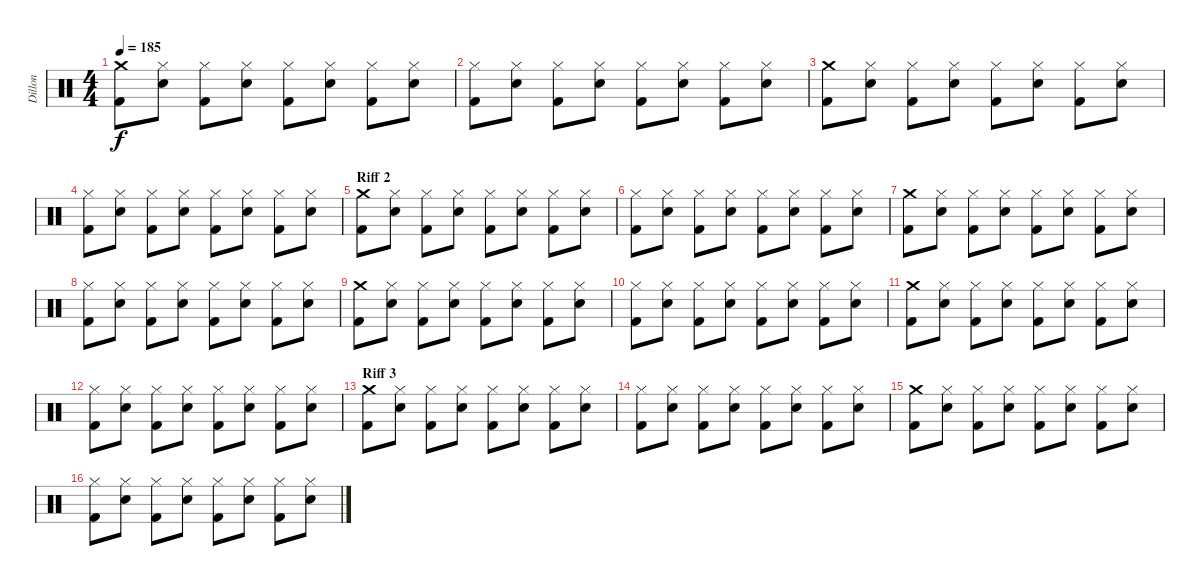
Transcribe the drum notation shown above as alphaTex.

\track ("Dillon" "Dillon") {instrument percussion}
\staff {score}
\articulation defaults
\ts (4 4)
\tempo 185
\clef neutral
\ks c
("Crash medium (hit)" "Kick (hit) 2").8{dy f} ("Hi-Hat (closed)" "Electric Snare (hit)").8 ("Hi-Hat (closed)" "Kick (hit) 2").8 ("Hi-Hat (closed)" "Electric Snare (hit)").8 ("Hi-Hat (closed)" "Kick (hit) 2").8 ("Hi-Hat (closed)" "Electric Snare (hit)").8 ("Hi-Hat (closed)" "Kick (hit) 2").8 ("Hi-Hat (closed)" "Electric Snare (hit)").8 |
("Hi-Hat (closed)" "Kick (hit) 2").8 ("Hi-Hat (closed)" "Electric Snare (hit)").8 ("Hi-Hat (closed)" "Kick (hit) 2").8 ("Hi-Hat (closed)" "Electric Snare (hit)").8 ("Hi-Hat (closed)" "Kick (hit) 2").8 ("Hi-Hat (closed)" "Electric Snare (hit)").8 ("Hi-Hat (closed)" "Kick (hit) 2").8 ("Hi-Hat (closed)" "Electric Snare (hit)").8 |
("Crash medium (hit)" "Kick (hit) 2").8 ("Hi-Hat (closed)" "Electric Snare (hit)").8 ("Hi-Hat (closed)" "Kick (hit) 2").8 ("Hi-Hat (closed)" "Electric Snare (hit)").8 ("Hi-Hat (closed)" "Kick (hit) 2").8 ("Hi-Hat (closed)" "Electric Snare (hit)").8 ("Hi-Hat (closed)" "Kick (hit) 2").8 ("Hi-Hat (closed)" "Electric Snare (hit)").8 |
("Hi-Hat (closed)" "Kick (hit) 2").8 ("Hi-Hat (closed)" "Electric Snare (hit)").8 ("Hi-Hat (closed)" "Kick (hit) 2").8 ("Hi-Hat (closed)" "Electric Snare (hit)").8 ("Hi-Hat (closed)" "Kick (hit) 2").8 ("Hi-Hat (closed)" "Electric Snare (hit)").8 ("Hi-Hat (closed)" "Kick (hit) 2").8 ("Hi-Hat (closed)" "Electric Snare (hit)").8 |
\section ("" "Riff 2")
("Crash medium (hit)" "Kick (hit) 2").8 ("Hi-Hat (closed)" "Electric Snare (hit)").8 ("Hi-Hat (closed)" "Kick (hit) 2").8 ("Hi-Hat (closed)" "Electric Snare (hit)").8 ("Hi-Hat (closed)" "Kick (hit) 2").8 ("Hi-Hat (closed)" "Electric Snare (hit)").8 ("Hi-Hat (closed)" "Kick (hit) 2").8 ("Hi-Hat (closed)" "Electric Snare (hit)").8 |
("Hi-Hat (closed)" "Kick (hit) 2").8 ("Hi-Hat (closed)" "Electric Snare (hit)").8 ("Hi-Hat (closed)" "Kick (hit) 2").8 ("Hi-Hat (closed)" "Electric Snare (hit)").8 ("Hi-Hat (closed)" "Kick (hit) 2").8 ("Hi-Hat (closed)" "Electric Snare (hit)").8 ("Hi-Hat (closed)" "Kick (hit) 2").8 ("Hi-Hat (closed)" "Electric Snare (hit)").8 |
("Crash medium (hit)" "Kick (hit) 2").8 ("Hi-Hat (closed)" "Electric Snare (hit)").8 ("Hi-Hat (closed)" "Kick (hit) 2").8 ("Hi-Hat (closed)" "Electric Snare (hit)").8 ("Hi-Hat (closed)" "Kick (hit) 2").8 ("Hi-Hat (closed)" "Electric Snare (hit)").8 ("Hi-Hat (closed)" "Kick (hit) 2").8 ("Hi-Hat (closed)" "Electric Snare (hit)").8 |
("Hi-Hat (closed)" "Kick (hit) 2").8 ("Hi-Hat (closed)" "Electric Snare (hit)").8 ("Hi-Hat (closed)" "Kick (hit) 2").8 ("Hi-Hat (closed)" "Electric Snare (hit)").8 ("Hi-Hat (closed)" "Kick (hit) 2").8 ("Hi-Hat (closed)" "Electric Snare (hit)").8 ("Hi-Hat (closed)" "Kick (hit) 2").8 ("Hi-Hat (closed)" "Electric Snare (hit)").8 |
("Crash medium (hit)" "Kick (hit) 2").8 ("Hi-Hat (closed)" "Electric Snare (hit)").8 ("Hi-Hat (closed)" "Kick (hit) 2").8 ("Hi-Hat (closed)" "Electric Snare (hit)").8 ("Hi-Hat (closed)" "Kick (hit) 2").8 ("Hi-Hat (closed)" "Electric Snare (hit)").8 ("Hi-Hat (closed)" "Kick (hit) 2").8 ("Hi-Hat (closed)" "Electric Snare (hit)").8 |
("Hi-Hat (closed)" "Kick (hit) 2").8 ("Hi-Hat (closed)" "Electric Snare (hit)").8 ("Hi-Hat (closed)" "Kick (hit) 2").8 ("Hi-Hat (closed)" "Electric Snare (hit)").8 ("Hi-Hat (closed)" "Kick (hit) 2").8 ("Hi-Hat (closed)" "Electric Snare (hit)").8 ("Hi-Hat (closed)" "Kick (hit) 2").8 ("Hi-Hat (closed)" "Electric Snare (hit)").8 |
("Crash medium (hit)" "Kick (hit) 2").8 ("Hi-Hat (closed)" "Electric Snare (hit)").8 ("Hi-Hat (closed)" "Kick (hit) 2").8 ("Hi-Hat (closed)" "Electric Snare (hit)").8 ("Hi-Hat (closed)" "Kick (hit) 2").8 ("Hi-Hat (closed)" "Electric Snare (hit)").8 ("Hi-Hat (closed)" "Kick (hit) 2").8 ("Hi-Hat (closed)" "Electric Snare (hit)").8 |
("Hi-Hat (closed)" "Kick (hit) 2").8 ("Hi-Hat (closed)" "Electric Snare (hit)").8 ("Hi-Hat (closed)" "Kick (hit) 2").8 ("Hi-Hat (closed)" "Electric Snare (hit)").8 ("Hi-Hat (closed)" "Kick (hit) 2").8 ("Hi-Hat (closed)" "Electric Snare (hit)").8 ("Hi-Hat (closed)" "Kick (hit) 2").8 ("Hi-Hat (closed)" "Electric Snare (hit)").8 |
\section ("" "Riff 3 ")
("Crash medium (hit)" "Kick (hit) 2").8 ("Hi-Hat (closed)" "Electric Snare (hit)").8 ("Hi-Hat (closed)" "Kick (hit) 2").8 ("Hi-Hat (closed)" "Electric Snare (hit)").8 ("Hi-Hat (closed)" "Kick (hit) 2").8 ("Hi-Hat (closed)" "Electric Snare (hit)").8 ("Hi-Hat (closed)" "Kick (hit) 2").8 ("Hi-Hat (closed)" "Electric Snare (hit)").8 |
("Hi-Hat (closed)" "Kick (hit) 2").8 ("Hi-Hat (closed)" "Electric Snare (hit)").8 ("Hi-Hat (closed)" "Kick (hit) 2").8 ("Hi-Hat (closed)" "Electric Snare (hit)").8 ("Hi-Hat (closed)" "Kick (hit) 2").8 ("Hi-Hat (closed)" "Electric Snare (hit)").8 ("Hi-Hat (closed)" "Kick (hit) 2").8 ("Hi-Hat (closed)" "Electric Snare (hit)").8 |
("Crash medium (hit)" "Kick (hit) 2").8 ("Hi-Hat (closed)" "Electric Snare (hit)").8 ("Hi-Hat (closed)" "Kick (hit) 2").8 ("Hi-Hat (closed)" "Electric Snare (hit)").8 ("Hi-Hat (closed)" "Kick (hit) 2").8 ("Hi-Hat (closed)" "Electric Snare (hit)").8 ("Hi-Hat (closed)" "Kick (hit) 2").8 ("Hi-Hat (closed)" "Electric Snare (hit)").8 |
("Hi-Hat (closed)" "Kick (hit) 2").8 ("Hi-Hat (closed)" "Electric Snare (hit)").8 ("Hi-Hat (closed)" "Kick (hit) 2").8 ("Hi-Hat (closed)" "Electric Snare (hit)").8 ("Hi-Hat (closed)" "Kick (hit) 2").8 ("Hi-Hat (closed)" "Electric Snare (hit)").8 ("Hi-Hat (closed)" "Kick (hit) 2").8 ("Hi-Hat (closed)" "Electric Snare (hit)").8
